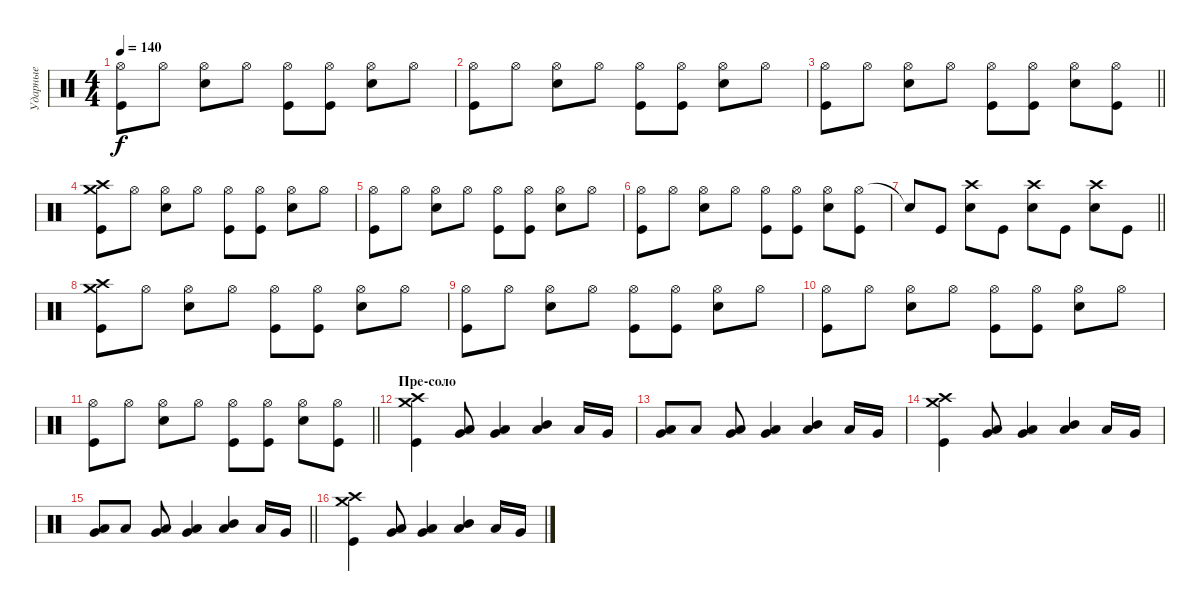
\track ("Ударные" "Ударные") {instrument percussion}
\staff {score}
\articulation defaults
\ts (4 4)
\tempo 140
\clef neutral
\ks c
("Hi-Hat (open)" "Kick (hit)").8{dy f} "Hi-Hat (open)".8 ("Hi-Hat (open)" "Snare (hit) 2").8 "Hi-Hat (open)".8 ("Hi-Hat (open)" "Kick (hit)").8 ("Hi-Hat (open)" "Kick (hit)").8 ("Hi-Hat (open)" "Snare (hit) 2").8 "Hi-Hat (open)".8 |
("Hi-Hat (open)" "Kick (hit)").8 "Hi-Hat (open)".8 ("Hi-Hat (open)" "Snare (hit) 2").8 "Hi-Hat (open)".8 ("Hi-Hat (open)" "Kick (hit)").8 ("Hi-Hat (open)" "Kick (hit)").8 ("Hi-Hat (open)" "Snare (hit) 2").8 "Hi-Hat (open)".8 |
\barLineRight lightlight
("Hi-Hat (open)" "Kick (hit)").8 "Hi-Hat (open)".8 ("Hi-Hat (open)" "Snare (hit) 2").8 "Hi-Hat (open)".8 ("Hi-Hat (open)" "Kick (hit)").8 ("Hi-Hat (open)" "Kick (hit)").8 ("Hi-Hat (open)" "Snare (hit) 2").8 ("Hi-Hat (open)" "Kick (hit)").8 |
("Crash medium (hit)" "Crash high (hit)" "Kick (hit)").8 "Hi-Hat (open)".8 ("Hi-Hat (open)" "Snare (hit) 2").8 "Hi-Hat (open)".8 ("Hi-Hat (open)" "Kick (hit)").8 ("Hi-Hat (open)" "Kick (hit)").8 ("Hi-Hat (open)" "Snare (hit) 2").8 "Hi-Hat (open)".8 |
("Hi-Hat (open)" "Kick (hit)").8 "Hi-Hat (open)".8 ("Hi-Hat (open)" "Snare (hit) 2").8 "Hi-Hat (open)".8 ("Hi-Hat (open)" "Kick (hit)").8 ("Hi-Hat (open)" "Kick (hit)").8 ("Hi-Hat (open)" "Snare (hit) 2").8 "Hi-Hat (open)".8 |
("Hi-Hat (open)" "Kick (hit)").8 "Hi-Hat (open)".8 ("Hi-Hat (open)" "Snare (hit) 2").8 "Hi-Hat (open)".8 ("Hi-Hat (open)" "Kick (hit)").8 ("Hi-Hat (open)" "Kick (hit)").8 ("Hi-Hat (open)" "Snare (hit) 2").8 ("Hi-Hat (open)" "Kick (hit)").8 |
\barLineRight lightlight "Snare (hit)"{t}.8 "Kick (hit)".8
("Crash high (hit)" "Snare (hit) 2").8 "Kick (hit)".8 ("Crash high (hit)" "Snare (hit) 2").8 "Kick (hit)".8 ("Crash high (hit)" "Snare (hit) 2").8 "Kick (hit)".8 |
("Crash medium (hit)" "Crash high (hit)" "Kick (hit)").8 "Hi-Hat (open)".8 ("Hi-Hat (open)" "Snare (hit) 2").8 "Hi-Hat (open)".8 ("Hi-Hat (open)" "Kick (hit)").8 ("Hi-Hat (open)" "Kick (hit)").8 ("Hi-Hat (open)" "Snare (hit) 2").8 "Hi-Hat (open)".8 |
("Hi-Hat (open)" "Kick (hit)").8 "Hi-Hat (open)".8 ("Hi-Hat (open)" "Snare (hit) 2").8 "Hi-Hat (open)".8 ("Hi-Hat (open)" "Kick (hit)").8 ("Hi-Hat (open)" "Kick (hit)").8 ("Hi-Hat (open)" "Snare (hit) 2").8 "Hi-Hat (open)".8 |
("Hi-Hat (open)" "Kick (hit)").8 "Hi-Hat (open)".8 ("Hi-Hat (open)" "Snare (hit) 2").8 "Hi-Hat (open)".8 ("Hi-Hat (open)" "Kick (hit)").8 ("Hi-Hat (open)" "Kick (hit)").8 ("Hi-Hat (open)" "Snare (hit) 2").8 "Hi-Hat (open)".8 |
\barLineRight lightlight
("Hi-Hat (open)" "Kick (hit)").8 "Hi-Hat (open)".8 ("Hi-Hat (open)" "Snare (hit) 2").8 "Hi-Hat (open)".8 ("Hi-Hat (open)" "Kick (hit)").8 ("Hi-Hat (open)" "Kick (hit)").8 ("Hi-Hat (open)" "Snare (hit) 2").8 ("Hi-Hat (open)" "Kick (hit)").8 |
\section ("" "Пре-соло")
("Crash medium (hit)" "Crash high (hit)" "Kick (hit)").4 ("Low Floor Tom (hit)" "Very Low Tom (hit)").8 ("Very Low Tom (hit)" "Low Tom (hit)").4 ("Mid Tom (hit)" "Low Tom (hit)").4 "Low Tom (hit)".16 "Very Low Tom (hit)".16 |
("Low Floor Tom (hit)" "Very Low Tom (hit)").8 "Low Floor Tom (hit)".8 ("Low Floor Tom (hit)" "Very Low Tom (hit)").8 ("Very Low Tom (hit)" "Low Tom (hit)").4 ("Mid Tom (hit)" "Low Tom (hit)").4 "Low Tom (hit)".16 "Very Low Tom (hit)".16 |
("Crash medium (hit)" "Crash high (hit)" "Kick (hit)").4 ("Low Floor Tom (hit)" "Very Low Tom (hit)").8 ("Very Low Tom (hit)" "Low Tom (hit)").4 ("Mid Tom (hit)" "Low Tom (hit)").4 "Low Tom (hit)".16 "Very Low Tom (hit)".16 |
\barLineRight lightlight
("Low Floor Tom (hit)" "Very Low Tom (hit)").8 "Low Floor Tom (hit)".8 ("Low Floor Tom (hit)" "Very Low Tom (hit)").8 ("Very Low Tom (hit)" "Low Tom (hit)").4 ("Mid Tom (hit)" "Low Tom (hit)").4 "Low Tom (hit)".16 "Very Low Tom (hit)".16 |
("Crash medium (hit)" "Crash high (hit)" "Kick (hit)").4 ("Low Floor Tom (hit)" "Very Low Tom (hit)").8 ("Very Low Tom (hit)" "Low Tom (hit)").4 ("Mid Tom (hit)" "Low Tom (hit)").4 "Low Tom (hit)".16 "Very Low Tom (hit)".16
